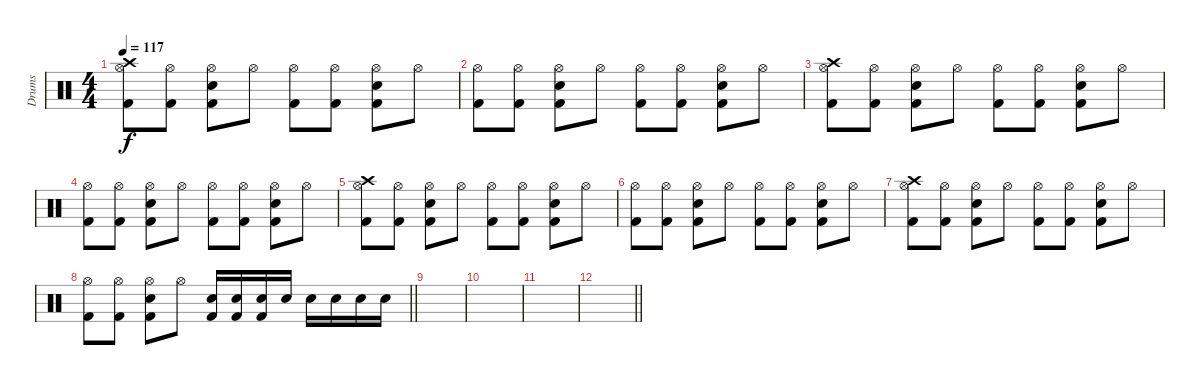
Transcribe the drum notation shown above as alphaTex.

\track ("Drums" "Drums") {instrument percussion}
\staff {score}
\articulation defaults
\ts (4 4)
\tempo 117
\clef neutral
\ks c
("Kick (hit) 2" "Hi-Hat (open)" "Crash high (hit)").8{dy f} ("Kick (hit) 2" "Hi-Hat (open)").8 ("Kick (hit) 2" "Hi-Hat (open)" "Snare (hit) 2").8 "Hi-Hat (open)".8 ("Kick (hit) 2" "Hi-Hat (open)").8 ("Kick (hit) 2" "Hi-Hat (open)").8 ("Kick (hit) 2" "Hi-Hat (open)" "Snare (hit) 2").8 "Hi-Hat (open)".8 |
("Kick (hit) 2" "Hi-Hat (open)").8 ("Kick (hit) 2" "Hi-Hat (open)").8 ("Kick (hit) 2" "Hi-Hat (open)" "Snare (hit) 2").8 "Hi-Hat (open)".8 ("Kick (hit) 2" "Hi-Hat (open)").8 ("Kick (hit) 2" "Hi-Hat (open)").8 ("Kick (hit) 2" "Hi-Hat (open)" "Snare (hit) 2").8 "Hi-Hat (open)".8 |
("Kick (hit) 2" "Hi-Hat (open)" "Crash high (hit)").8 ("Kick (hit) 2" "Hi-Hat (open)").8 ("Kick (hit) 2" "Hi-Hat (open)" "Snare (hit) 2").8 "Hi-Hat (open)".8 ("Kick (hit) 2" "Hi-Hat (open)").8 ("Kick (hit) 2" "Hi-Hat (open)").8 ("Kick (hit) 2" "Hi-Hat (open)" "Snare (hit) 2").8 "Hi-Hat (open)".8 |
("Kick (hit) 2" "Hi-Hat (open)").8 ("Kick (hit) 2" "Hi-Hat (open)").8 ("Kick (hit) 2" "Hi-Hat (open)" "Snare (hit) 2").8 "Hi-Hat (open)".8 ("Kick (hit) 2" "Hi-Hat (open)").8 ("Kick (hit) 2" "Hi-Hat (open)").8 ("Kick (hit) 2" "Hi-Hat (open)" "Snare (hit) 2").8 "Hi-Hat (open)".8 |
("Kick (hit) 2" "Hi-Hat (open)" "Crash high (hit)").8 ("Kick (hit) 2" "Hi-Hat (open)").8 ("Kick (hit) 2" "Hi-Hat (open)" "Snare (hit) 2").8 "Hi-Hat (open)".8 ("Kick (hit) 2" "Hi-Hat (open)").8 ("Kick (hit) 2" "Hi-Hat (open)").8 ("Kick (hit) 2" "Hi-Hat (open)" "Snare (hit) 2").8 "Hi-Hat (open)".8 |
("Kick (hit) 2" "Hi-Hat (open)").8 ("Kick (hit) 2" "Hi-Hat (open)").8 ("Kick (hit) 2" "Hi-Hat (open)" "Snare (hit) 2").8 "Hi-Hat (open)".8 ("Kick (hit) 2" "Hi-Hat (open)").8 ("Kick (hit) 2" "Hi-Hat (open)").8 ("Kick (hit) 2" "Hi-Hat (open)" "Snare (hit) 2").8 "Hi-Hat (open)".8 |
("Kick (hit) 2" "Hi-Hat (open)" "Crash high (hit)").8 ("Kick (hit) 2" "Hi-Hat (open)").8 ("Kick (hit) 2" "Hi-Hat (open)" "Snare (hit) 2").8 "Hi-Hat (open)".8 ("Kick (hit) 2" "Hi-Hat (open)").8 ("Kick (hit) 2" "Hi-Hat (open)").8 ("Kick (hit) 2" "Hi-Hat (open)" "Snare (hit) 2").8 "Hi-Hat (open)".8 |
\barLineRight lightlight
("Kick (hit) 2" "Hi-Hat (open)").8 ("Kick (hit) 2" "Hi-Hat (open)").8 ("Kick (hit) 2" "Hi-Hat (open)" "Snare (hit) 2").8 "Hi-Hat (open)".8 ("Kick (hit) 2" "Snare (hit) 2").16 ("Kick (hit) 2" "Snare (hit) 2").16 ("Kick (hit) 2" "Snare (hit) 2").16 "Snare (hit) 2".16 "Snare (hit) 2".16 "Snare (hit) 2".16 "Snare (hit) 2".16 "Snare (hit) 2".16 |
|
|
|
\barLineRight lightlight
